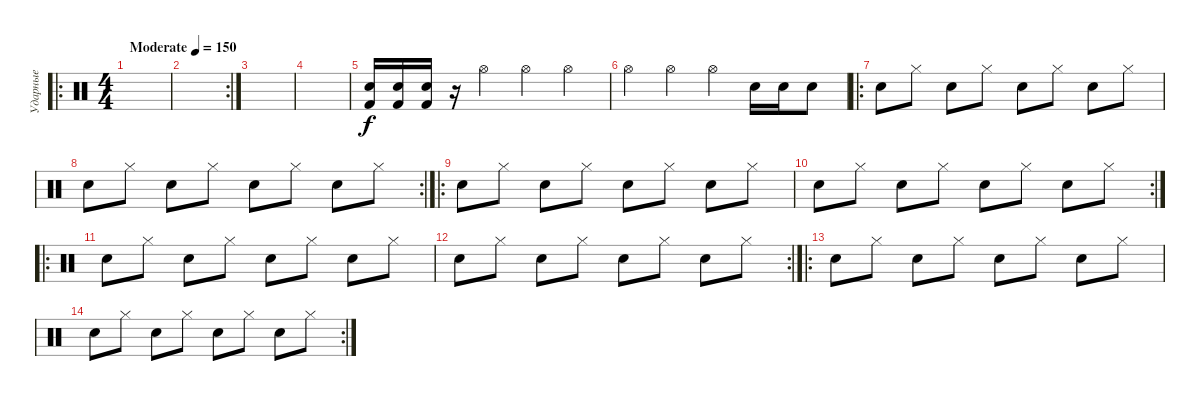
\track ("Ударные" "Ударные") {instrument percussion}
\staff {score}
\articulation defaults
\ro
\ts (4 4)
\tempo (150 "Moderate")
\clef neutral
\ks c
|
\rc 2
|
|
|
("Kick (hit) 2" "Snare (hit) 2").16 ("Kick (hit) 2" "Snare (hit) 2").16 ("Kick (hit) 2" "Snare (hit) 2").16 r.16 "Hi-Hat (open)".4 "Hi-Hat (open)".4 "Hi-Hat (open)".4 |
"Hi-Hat (open)".4 "Hi-Hat (open)".4 "Hi-Hat (open)".4 "Electric Snare (hit)".16 "Electric Snare (hit)".16 "Electric Snare (hit)".8 |
\ro "Electric Snare (hit)".8 "Hi-Hat (closed)".8 "Electric Snare (hit)".8 "Hi-Hat (closed)".8 "Electric Snare (hit)".8 "Hi-Hat (closed)".8 "Electric Snare (hit)".8 "Hi-Hat (closed)".8
|
\rc 2 "Electric Snare (hit)".8 "Hi-Hat (closed)".8 "Electric Snare (hit)".8 "Hi-Hat (closed)".8 "Electric Snare (hit)".8 "Hi-Hat (closed)".8 "Electric Snare (hit)".8 "Hi-Hat (closed)".8
|
\ro "Electric Snare (hit)".8 "Hi-Hat (closed)".8 "Electric Snare (hit)".8 "Hi-Hat (closed)".8 "Electric Snare (hit)".8 "Hi-Hat (closed)".8 "Electric Snare (hit)".8 "Hi-Hat (closed)".8
|
\rc 2 "Electric Snare (hit)".8 "Hi-Hat (closed)".8 "Electric Snare (hit)".8 "Hi-Hat (closed)".8 "Electric Snare (hit)".8 "Hi-Hat (closed)".8 "Electric Snare (hit)".8 "Hi-Hat (closed)".8
|
\ro "Electric Snare (hit)".8 "Hi-Hat (closed)".8 "Electric Snare (hit)".8 "Hi-Hat (closed)".8 "Electric Snare (hit)".8 "Hi-Hat (closed)".8 "Electric Snare (hit)".8 "Hi-Hat (closed)".8
|
\rc 2 "Electric Snare (hit)".8 "Hi-Hat (closed)".8 "Electric Snare (hit)".8 "Hi-Hat (closed)".8 "Electric Snare (hit)".8 "Hi-Hat (closed)".8 "Electric Snare (hit)".8 "Hi-Hat (closed)".8
|
\ro "Electric Snare (hit)".8 "Hi-Hat (closed)".8 "Electric Snare (hit)".8 "Hi-Hat (closed)".8 "Electric Snare (hit)".8 "Hi-Hat (closed)".8 "Electric Snare (hit)".8 "Hi-Hat (closed)".8
|
\rc 2 "Electric Snare (hit)".8 "Hi-Hat (closed)".8 "Electric Snare (hit)".8 "Hi-Hat (closed)".8 "Electric Snare (hit)".8 "Hi-Hat (closed)".8 "Electric Snare (hit)".8 "Hi-Hat (closed)".8
